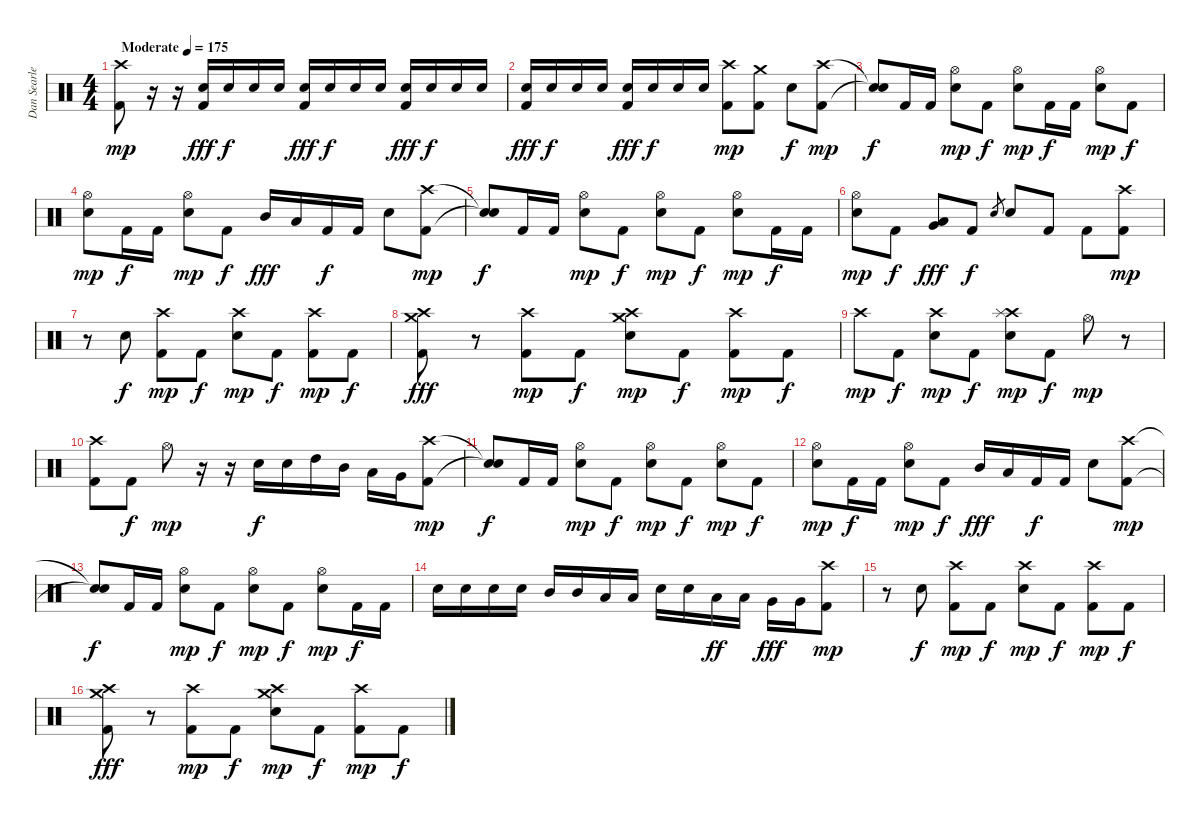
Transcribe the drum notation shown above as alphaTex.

\track ("Dan Searle" "Dan Searle") {instrument percussion}
\staff {score}
\articulation defaults
\ts (4 4)
\tempo (175 "Moderate")
\clef neutral
\ks c
("Crash high (hit)" "Kick (hit) 2").8{dy mp} r.16 r.16 ("Electric Snare (hit)" "Kick (hit) 2").16{dy fff} "Electric Snare (hit)".16{dy f} "Electric Snare (hit)".16 "Electric Snare (hit)".16 ("Electric Snare (hit)" "Kick (hit) 2").16{dy fff} "Electric Snare (hit)".16{dy f} "Electric Snare (hit)".16 "Electric Snare (hit)".16 ("Electric Snare (hit)" "Kick (hit) 2").16{dy fff} "Electric Snare (hit)".16{dy f} "Electric Snare (hit)".16 "Electric Snare (hit)".16 |
("Electric Snare (hit)" "Kick (hit) 2").16{dy fff} "Electric Snare (hit)".16{dy f} "Electric Snare (hit)".16 "Electric Snare (hit)".16 ("Electric Snare (hit)" "Kick (hit) 2").16{dy fff} "Electric Snare (hit)".16{dy f} "Electric Snare (hit)".16 "Electric Snare (hit)".16 ("Crash high (hit)" "Kick (hit) 2").8{dy mp} ("Crash medium (hit)" "Kick (hit) 2").8 "Electric Snare (hit)".8{dy f} ("Crash high (hit)" "Kick (hit) 2").8{dy mp} |
("Snare (hit)"{t} "Snare (hit)"{t}).8{dy f} "Kick (hit) 2".16 "Kick (hit) 2".16 ("Hi-Hat (open)" "Electric Snare (hit)").8{dy mp} "Kick (hit) 2".8{dy f} ("Hi-Hat (open)" "Electric Snare (hit)").8{dy mp} "Kick (hit) 2".16{dy f} "Kick (hit) 2".16 ("Hi-Hat (open)" "Electric Snare (hit)").8{dy mp} "Kick (hit) 2".8{dy f} |
("Hi-Hat (open)" "Electric Snare (hit)").8{dy mp} "Kick (hit) 2".16{dy f} "Kick (hit) 2".16 ("Hi-Hat (open)" "Electric Snare (hit)").8{dy mp} "Kick (hit) 2".8{dy f} "Mid Tom (hit)".16{dy fff} "Low Tom (hit)".16 "Kick (hit) 2".16{dy f} "Kick (hit) 2".16 "Electric Snare (hit)".8 ("Crash high (hit)" "Kick (hit) 2").8{dy mp} |
("Snare (hit)"{t} "Snare (hit)"{t}).8{dy f} "Kick (hit) 2".16 "Kick (hit) 2".16 ("Hi-Hat (open)" "Electric Snare (hit)").8{dy mp} "Kick (hit) 2".8{dy f} ("Hi-Hat (open)" "Electric Snare (hit)").8{dy mp} "Kick (hit) 2".8{dy f} ("Hi-Hat (open)" "Electric Snare (hit)").8{dy mp} "Kick (hit) 2".16{dy f} "Kick (hit) 2".16 |
("Hi-Hat (open)" "Electric Snare (hit)").8{dy mp} "Kick (hit) 2".8{dy f} ("Low Tom (hit)" "Very Low Tom (hit)").8{dy fff} "Kick (hit) 2".8{dy f} "Electric Snare (hit)".8{gr} "Electric Snare (hit)".8 "Kick (hit) 2".8 "Kick (hit) 2".8 ("Crash high (hit)" "Kick (hit) 2").8{dy mp} |
r.8 "Electric Snare (hit)".8{dy f} ("Crash high (hit)" "Kick (hit) 2").8{dy mp} "Kick (hit) 2".8{dy f} ("Crash high (hit)" "Electric Snare (hit)").8{dy mp} "Kick (hit) 2".8{dy f} ("Crash high (hit)" "Kick (hit) 2").8{dy mp} "Kick (hit) 2".8{dy f} |
("Crash high (hit)" "Crash medium (hit)" "Kick (hit) 2").8{dy fff} r.8 ("Crash high (hit)" "Kick (hit) 2").8{dy mp} "Kick (hit) 2".8{dy f} ("Crash high (hit)" "Crash medium (hit)" "Electric Snare (hit)").8{dy mp} "Kick (hit) 2".8{dy f} ("Crash high (hit)" "Kick (hit) 2").8{dy mp} "Kick (hit) 2".8{dy f} |
"Crash high (hit)".8{dy mp} "Kick (hit) 2".8{dy f} ("Crash high (hit)" "Electric Snare (hit)").8{dy mp} "Kick (hit) 2".8{dy f} ("Crash high (hit)" "Splash (hit)" "Electric Snare (hit)").8{dy mp} "Kick (hit) 2".8{dy f} "Hi-Hat (open)".8{dy mp} r.8 |
("Crash high (hit)" "Kick (hit) 2").8 "Kick (hit) 2".8{dy f} "Hi-Hat (open)".8{dy mp} r.16 r.16 "Electric Snare (hit)".16{dy f} "Electric Snare (hit)".16 "High Tom (hit)".16 "Mid Tom (hit)".16 "Low Tom (hit)".16 "Very Low Tom (hit)".16 ("Crash high (hit)" "Kick (hit) 2").8{dy mp} |
("Snare (hit)"{t} "Snare (hit)"{t}).8{dy f} "Kick (hit) 2".16 "Kick (hit) 2".16 ("Hi-Hat (open)" "Electric Snare (hit)").8{dy mp} "Kick (hit) 2".8{dy f} ("Hi-Hat (open)" "Electric Snare (hit)").8{dy mp} "Kick (hit) 2".8{dy f} ("Hi-Hat (open)" "Electric Snare (hit)").8{dy mp} "Kick (hit) 2".8{dy f} |
("Hi-Hat (open)" "Electric Snare (hit)").8{dy mp} "Kick (hit) 2".16{dy f} "Kick (hit) 2".16 ("Hi-Hat (open)" "Electric Snare (hit)").8{dy mp} "Kick (hit) 2".8{dy f} "Mid Tom (hit)".16{dy fff} "Low Tom (hit)".16 "Kick (hit) 2".16{dy f} "Kick (hit) 2".16 "Electric Snare (hit)".8 ("Crash high (hit)" "Kick (hit) 2").8{dy mp} |
("Snare (hit)"{t} "Snare (hit)"{t}).8{dy f} "Kick (hit) 2".16 "Kick (hit) 2".16 ("Hi-Hat (open)" "Electric Snare (hit)").8{dy mp} "Kick (hit) 2".8{dy f} ("Hi-Hat (open)" "Electric Snare (hit)").8{dy mp} "Kick (hit) 2".8{dy f} ("Hi-Hat (open)" "Electric Snare (hit)").8{dy mp} "Kick (hit) 2".16{dy f} "Kick (hit) 2".16 |
"Electric Snare (hit)".16 "Electric Snare (hit)".16 "Electric Snare (hit)".16 "Electric Snare (hit)".16 "Mid Tom (hit)".16 "Mid Tom (hit)".16 "Low Tom (hit)".16 "Low Tom (hit)".16 "Electric Snare (hit)".16 "Electric Snare (hit)".16 "Low Tom (hit)".16{dy ff} "Low Tom (hit)".16 "Very Low Tom (hit)".16{dy fff} "Very Low Tom (hit)".16 ("Crash high (hit)" "Kick (hit) 2").8{dy mp} |
r.8 "Electric Snare (hit)".8{dy f} ("Crash high (hit)" "Kick (hit) 2").8{dy mp} "Kick (hit) 2".8{dy f} ("Crash high (hit)" "Electric Snare (hit)").8{dy mp} "Kick (hit) 2".8{dy f} ("Crash high (hit)" "Kick (hit) 2").8{dy mp} "Kick (hit) 2".8{dy f} |
("Crash high (hit)" "Crash medium (hit)" "Kick (hit) 2").8{dy fff} r.8 ("Crash high (hit)" "Kick (hit) 2").8{dy mp} "Kick (hit) 2".8{dy f} ("Crash high (hit)" "Crash medium (hit)" "Electric Snare (hit)").8{dy mp} "Kick (hit) 2".8{dy f} ("Crash high (hit)" "Kick (hit) 2").8{dy mp} "Kick (hit) 2".8{dy f}
